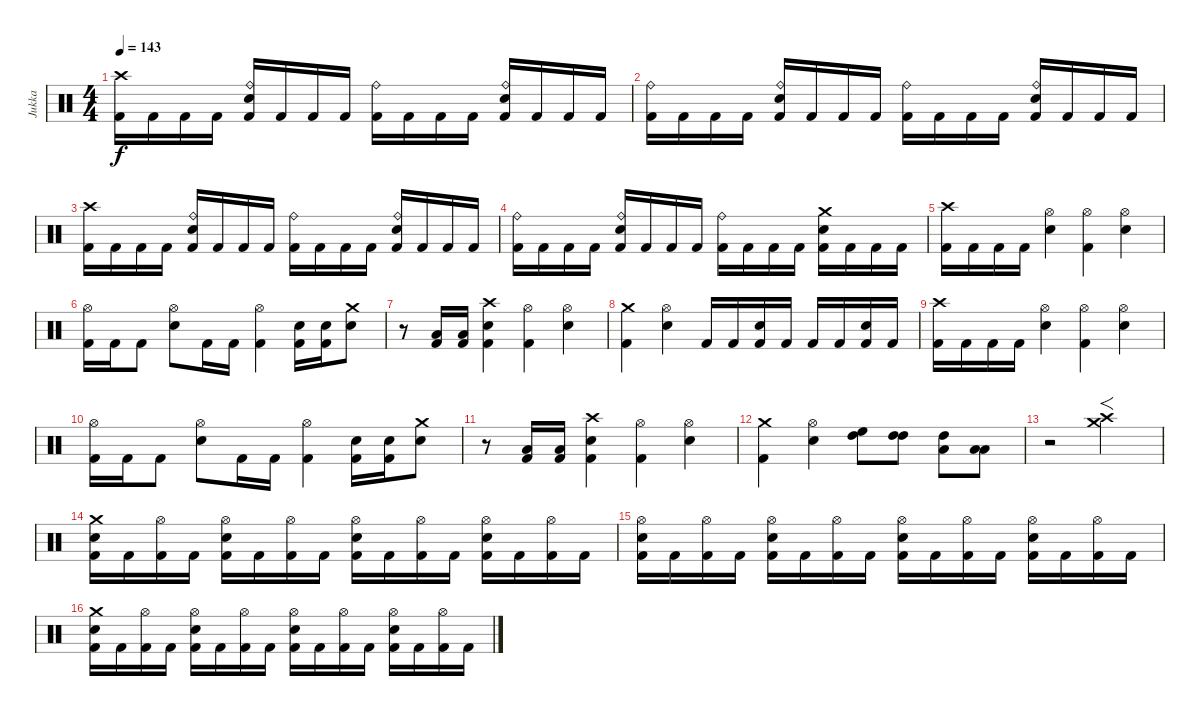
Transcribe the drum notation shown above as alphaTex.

\track ("Jukka" "Jukka") {instrument percussion}
\staff {score}
\articulation defaults
\ts (4 4)
\tempo 143
\clef neutral
\ks c
("Crash high (hit)" "Kick (hit) 2").16{dy f} "Kick (hit) 2".16 "Kick (hit) 2".16 "Kick (hit) 2".16 ("Ride (bell)" "Electric Snare (hit)" "Kick (hit) 2").16 "Kick (hit) 2".16 "Kick (hit) 2".16 "Kick (hit) 2".16 ("Ride (bell)" "Kick (hit) 2").16 "Kick (hit) 2".16 "Kick (hit) 2".16 "Kick (hit) 2".16 ("Ride (bell)" "Electric Snare (hit)" "Kick (hit) 2").16 "Kick (hit) 2".16 "Kick (hit) 2".16 "Kick (hit) 2".16 |
("Ride (bell)" "Kick (hit) 2").16 "Kick (hit) 2".16 "Kick (hit) 2".16 "Kick (hit) 2".16 ("Ride (bell)" "Electric Snare (hit)" "Kick (hit) 2").16 "Kick (hit) 2".16 "Kick (hit) 2".16 "Kick (hit) 2".16 ("Ride (bell)" "Kick (hit) 2").16 "Kick (hit) 2".16 "Kick (hit) 2".16 "Kick (hit) 2".16 ("Ride (bell)" "Electric Snare (hit)" "Kick (hit) 2").16 "Kick (hit) 2".16 "Kick (hit) 2".16 "Kick (hit) 2".16 |
("Crash high (hit)" "Kick (hit) 2").16 "Kick (hit) 2".16 "Kick (hit) 2".16 "Kick (hit) 2".16 ("Ride (bell)" "Electric Snare (hit)" "Kick (hit) 2").16 "Kick (hit) 2".16 "Kick (hit) 2".16 "Kick (hit) 2".16 ("Ride (bell)" "Kick (hit) 2").16 "Kick (hit) 2".16 "Kick (hit) 2".16 "Kick (hit) 2".16 ("Ride (bell)" "Electric Snare (hit)" "Kick (hit) 2").16 "Kick (hit) 2".16 "Kick (hit) 2".16 "Kick (hit) 2".16 |
("Ride (bell)" "Kick (hit) 2").16 "Kick (hit) 2".16 "Kick (hit) 2".16 "Kick (hit) 2".16 ("Ride (bell)" "Electric Snare (hit)" "Kick (hit) 2").16 "Kick (hit) 2".16 "Kick (hit) 2".16 "Kick (hit) 2".16 ("Ride (bell)" "Kick (hit) 2").16 "Kick (hit) 2".16 "Kick (hit) 2".16 "Kick (hit) 2".16 ("Crash medium (hit)" "Electric Snare (hit)" "Kick (hit) 2").16 "Kick (hit) 2".16 "Kick (hit) 2".16 "Kick (hit) 2".16 |
("Crash high (hit)" "Kick (hit) 2").16 "Kick (hit) 2".16 "Kick (hit) 2".16 "Kick (hit) 2".16 ("Hi-Hat (open)" "Electric Snare (hit)").4 ("Hi-Hat (open)" "Kick (hit) 2").4 ("Hi-Hat (open)" "Electric Snare (hit)").4 |
("Hi-Hat (open)" "Kick (hit) 2").16 "Kick (hit) 2".16 "Kick (hit) 2".8 ("Hi-Hat (open)" "Electric Snare (hit)").8 "Kick (hit) 2".16 "Kick (hit) 2".16 ("Hi-Hat (open)" "Kick (hit) 2").4 ("Electric Snare (hit)" "Kick (hit) 2").16 ("Electric Snare (hit)" "Kick (hit) 2").16 ("Crash medium (hit)" "Electric Snare (hit)").8 |
r.8 ("Low Tom (hit)" "Kick (hit) 2").16 ("Low Tom (hit)" "Kick (hit) 2").16 ("Crash high (hit)" "Electric Snare (hit)" "Kick (hit) 2").4 ("Hi-Hat (open)" "Kick (hit) 2").4 ("Hi-Hat (open)" "Electric Snare (hit)").4 |
("Crash medium (hit)" "Kick (hit) 2").4 ("Hi-Hat (open)" "Electric Snare (hit)").4 "Kick (hit) 2".16 "Kick (hit) 2".16 ("Electric Snare (hit)" "Kick (hit) 2").16 "Kick (hit) 2".16 "Kick (hit) 2".16 "Kick (hit) 2".16 ("Electric Snare (hit)" "Kick (hit) 2").16 "Kick (hit) 2".16 |
("Crash high (hit)" "Kick (hit) 2").16 "Kick (hit) 2".16 "Kick (hit) 2".16 "Kick (hit) 2".16 ("Hi-Hat (open)" "Electric Snare (hit)").4 ("Hi-Hat (open)" "Kick (hit) 2").4 ("Hi-Hat (open)" "Electric Snare (hit)").4 |
("Hi-Hat (open)" "Kick (hit) 2").16 "Kick (hit) 2".16 "Kick (hit) 2".8 ("Hi-Hat (open)" "Electric Snare (hit)").8 "Kick (hit) 2".16 "Kick (hit) 2".16 ("Hi-Hat (open)" "Kick (hit) 2").4 ("Electric Snare (hit)" "Kick (hit) 2").16 ("Electric Snare (hit)" "Kick (hit) 2").16 ("Crash medium (hit)" "Electric Snare (hit)").8 |
r.8 ("Low Tom (hit)" "Kick (hit) 2").16 ("Low Tom (hit)" "Kick (hit) 2").16 ("Crash high (hit)" "Electric Snare (hit)" "Kick (hit) 2").4 ("Hi-Hat (open)" "Kick (hit) 2").4 ("Hi-Hat (open)" "Electric Snare (hit)").4 |
("Crash medium (hit)" "Kick (hit) 2").4 ("Hi-Hat (open)" "Electric Snare (hit)").4 ("High Floor Tom (hit)" "High Tom (hit)").8 ("High Tom (hit)" "High Tom (hit)").8 ("High Tom (hit)" "Low Tom (hit)").8 ("Low Tom (hit)" "Low Tom (hit)").8 |
r.2 ("Crash medium (hit)" "Crash high (hit)").2{f} |
("Crash medium (hit)" "Electric Snare (hit)" "Kick (hit) 2").16 "Kick (hit) 2".16 ("Hi-Hat (open)" "Kick (hit) 2").16 "Kick (hit) 2".16 ("Hi-Hat (open)" "Electric Snare (hit)" "Kick (hit) 2").16 "Kick (hit) 2".16 ("Hi-Hat (open)" "Kick (hit) 2").16 "Kick (hit) 2".16 ("Hi-Hat (open)" "Electric Snare (hit)" "Kick (hit) 2").16 "Kick (hit) 2".16 ("Hi-Hat (open)" "Kick (hit) 2").16 "Kick (hit) 2".16 ("Hi-Hat (open)" "Electric Snare (hit)" "Kick (hit) 2").16 "Kick (hit) 2".16 ("Hi-Hat (open)" "Kick (hit) 2").16 "Kick (hit) 2".16 |
("Hi-Hat (open)" "Electric Snare (hit)" "Kick (hit) 2").16 "Kick (hit) 2".16 ("Hi-Hat (open)" "Kick (hit) 2").16 "Kick (hit) 2".16 ("Hi-Hat (open)" "Electric Snare (hit)" "Kick (hit) 2").16 "Kick (hit) 2".16 ("Hi-Hat (open)" "Kick (hit) 2").16 "Kick (hit) 2".16 ("Hi-Hat (open)" "Electric Snare (hit)" "Kick (hit) 2").16 "Kick (hit) 2".16 ("Hi-Hat (open)" "Kick (hit) 2").16 "Kick (hit) 2".16 ("Hi-Hat (open)" "Electric Snare (hit)" "Kick (hit) 2").16 "Kick (hit) 2".16 ("Hi-Hat (open)" "Kick (hit) 2").16 "Kick (hit) 2".16 |
("Crash medium (hit)" "Electric Snare (hit)" "Kick (hit) 2").16 "Kick (hit) 2".16 ("Hi-Hat (open)" "Kick (hit) 2").16 "Kick (hit) 2".16 ("Hi-Hat (open)" "Electric Snare (hit)" "Kick (hit) 2").16 "Kick (hit) 2".16 ("Hi-Hat (open)" "Kick (hit) 2").16 "Kick (hit) 2".16 ("Hi-Hat (open)" "Electric Snare (hit)" "Kick (hit) 2").16 "Kick (hit) 2".16 ("Hi-Hat (open)" "Kick (hit) 2").16 "Kick (hit) 2".16 ("Hi-Hat (open)" "Electric Snare (hit)" "Kick (hit) 2").16 "Kick (hit) 2".16 ("Hi-Hat (open)" "Kick (hit) 2").16 "Kick (hit) 2".16
